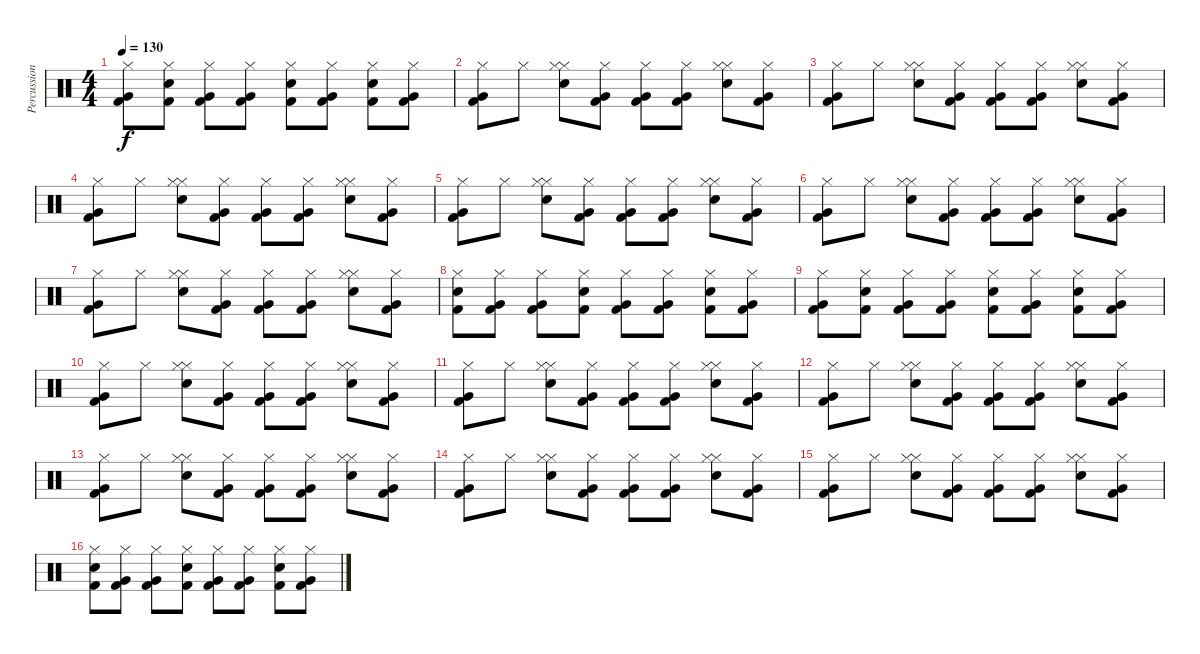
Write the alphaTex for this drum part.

\track ("Percussion" "Percussion") {instrument percussion}
\staff {score}
\articulation defaults
\ts (4 4)
\tempo 130
\clef neutral
\ks c
("Hi-Hat (closed)" "Very Low Tom (hit)" "Kick (hit) 2").8{dy f} ("Hi-Hat (closed)" "Snare (hit) 2" "Kick (hit) 2").8 ("Hi-Hat (closed)" "Very Low Tom (hit)" "Kick (hit) 2").8 ("Hi-Hat (closed)" "Very Low Tom (hit)" "Kick (hit) 2").8 ("Hi-Hat (closed)" "Snare (hit) 2" "Kick (hit) 2").8 ("Hi-Hat (closed)" "Very Low Tom (hit)" "Kick (hit) 2").8 ("Hi-Hat (closed)" "Snare (hit) 2" "Kick (hit) 2").8 ("Hi-Hat (closed)" "Very Low Tom (hit)" "Kick (hit) 2").8 |
("Hi-Hat (closed)" "Very Low Tom (hit)" "Kick (hit) 2").8 "Hi-Hat (closed)".8 ("Hi-Hat (closed)" "Hi-Hat (closed)" "Snare (hit) 2").8 ("Hi-Hat (closed)" "Very Low Tom (hit)" "Kick (hit) 2").8 ("Hi-Hat (closed)" "Very Low Tom (hit)" "Kick (hit) 2").8 ("Hi-Hat (closed)" "Very Low Tom (hit)" "Kick (hit) 2").8 ("Hi-Hat (closed)" "Hi-Hat (closed)" "Snare (hit) 2").8 ("Hi-Hat (closed)" "Very Low Tom (hit)" "Kick (hit) 2").8 |
("Hi-Hat (closed)" "Very Low Tom (hit)" "Kick (hit) 2").8 "Hi-Hat (closed)".8 ("Hi-Hat (closed)" "Hi-Hat (closed)" "Snare (hit) 2").8 ("Hi-Hat (closed)" "Very Low Tom (hit)" "Kick (hit) 2").8 ("Hi-Hat (closed)" "Very Low Tom (hit)" "Kick (hit) 2").8 ("Hi-Hat (closed)" "Very Low Tom (hit)" "Kick (hit) 2").8 ("Hi-Hat (closed)" "Hi-Hat (closed)" "Snare (hit) 2").8 ("Hi-Hat (closed)" "Very Low Tom (hit)" "Kick (hit) 2").8 |
("Hi-Hat (closed)" "Very Low Tom (hit)" "Kick (hit) 2").8 "Hi-Hat (closed)".8 ("Hi-Hat (closed)" "Hi-Hat (closed)" "Snare (hit) 2").8 ("Hi-Hat (closed)" "Very Low Tom (hit)" "Kick (hit) 2").8 ("Hi-Hat (closed)" "Very Low Tom (hit)" "Kick (hit) 2").8 ("Hi-Hat (closed)" "Very Low Tom (hit)" "Kick (hit) 2").8 ("Hi-Hat (closed)" "Hi-Hat (closed)" "Snare (hit) 2").8 ("Hi-Hat (closed)" "Very Low Tom (hit)" "Kick (hit) 2").8 |
("Hi-Hat (closed)" "Very Low Tom (hit)" "Kick (hit) 2").8 "Hi-Hat (closed)".8 ("Hi-Hat (closed)" "Hi-Hat (closed)" "Snare (hit) 2").8 ("Hi-Hat (closed)" "Very Low Tom (hit)" "Kick (hit) 2").8 ("Hi-Hat (closed)" "Very Low Tom (hit)" "Kick (hit) 2").8 ("Hi-Hat (closed)" "Very Low Tom (hit)" "Kick (hit) 2").8 ("Hi-Hat (closed)" "Hi-Hat (closed)" "Snare (hit) 2").8 ("Hi-Hat (closed)" "Very Low Tom (hit)" "Kick (hit) 2").8 |
("Hi-Hat (closed)" "Very Low Tom (hit)" "Kick (hit) 2").8 "Hi-Hat (closed)".8 ("Hi-Hat (closed)" "Hi-Hat (closed)" "Snare (hit) 2").8 ("Hi-Hat (closed)" "Very Low Tom (hit)" "Kick (hit) 2").8 ("Hi-Hat (closed)" "Very Low Tom (hit)" "Kick (hit) 2").8 ("Hi-Hat (closed)" "Very Low Tom (hit)" "Kick (hit) 2").8 ("Hi-Hat (closed)" "Hi-Hat (closed)" "Snare (hit) 2").8 ("Hi-Hat (closed)" "Very Low Tom (hit)" "Kick (hit) 2").8 |
("Hi-Hat (closed)" "Very Low Tom (hit)" "Kick (hit) 2").8 "Hi-Hat (closed)".8 ("Hi-Hat (closed)" "Hi-Hat (closed)" "Snare (hit) 2").8 ("Hi-Hat (closed)" "Very Low Tom (hit)" "Kick (hit) 2").8 ("Hi-Hat (closed)" "Very Low Tom (hit)" "Kick (hit) 2").8 ("Hi-Hat (closed)" "Very Low Tom (hit)" "Kick (hit) 2").8 ("Hi-Hat (closed)" "Hi-Hat (closed)" "Snare (hit) 2").8 ("Hi-Hat (closed)" "Very Low Tom (hit)" "Kick (hit) 2").8 |
("Hi-Hat (closed)" "Snare (hit) 2" "Kick (hit) 2").8 ("Hi-Hat (closed)" "Very Low Tom (hit)" "Kick (hit) 2").8 ("Hi-Hat (closed)" "Very Low Tom (hit)" "Kick (hit) 2").8 ("Hi-Hat (closed)" "Snare (hit) 2" "Kick (hit) 2").8 ("Hi-Hat (closed)" "Very Low Tom (hit)" "Kick (hit) 2").8 ("Hi-Hat (closed)" "Very Low Tom (hit)" "Kick (hit) 2").8 ("Hi-Hat (closed)" "Snare (hit) 2" "Kick (hit) 2").8 ("Hi-Hat (closed)" "Very Low Tom (hit)" "Kick (hit) 2").8 |
("Hi-Hat (closed)" "Very Low Tom (hit)" "Kick (hit) 2").8 ("Hi-Hat (closed)" "Snare (hit) 2" "Kick (hit) 2").8 ("Hi-Hat (closed)" "Very Low Tom (hit)" "Kick (hit) 2").8 ("Hi-Hat (closed)" "Very Low Tom (hit)" "Kick (hit) 2").8 ("Hi-Hat (closed)" "Snare (hit) 2" "Kick (hit) 2").8 ("Hi-Hat (closed)" "Very Low Tom (hit)" "Kick (hit) 2").8 ("Hi-Hat (closed)" "Snare (hit) 2" "Kick (hit) 2").8 ("Hi-Hat (closed)" "Very Low Tom (hit)" "Kick (hit) 2").8 |
("Hi-Hat (closed)" "Very Low Tom (hit)" "Kick (hit) 2").8 "Hi-Hat (closed)".8 ("Hi-Hat (closed)" "Hi-Hat (closed)" "Snare (hit) 2").8 ("Hi-Hat (closed)" "Very Low Tom (hit)" "Kick (hit) 2").8 ("Hi-Hat (closed)" "Very Low Tom (hit)" "Kick (hit) 2").8 ("Hi-Hat (closed)" "Very Low Tom (hit)" "Kick (hit) 2").8 ("Hi-Hat (closed)" "Hi-Hat (closed)" "Snare (hit) 2").8 ("Hi-Hat (closed)" "Very Low Tom (hit)" "Kick (hit) 2").8 |
("Hi-Hat (closed)" "Very Low Tom (hit)" "Kick (hit) 2").8 "Hi-Hat (closed)".8 ("Hi-Hat (closed)" "Hi-Hat (closed)" "Snare (hit) 2").8 ("Hi-Hat (closed)" "Very Low Tom (hit)" "Kick (hit) 2").8 ("Hi-Hat (closed)" "Very Low Tom (hit)" "Kick (hit) 2").8 ("Hi-Hat (closed)" "Very Low Tom (hit)" "Kick (hit) 2").8 ("Hi-Hat (closed)" "Hi-Hat (closed)" "Snare (hit) 2").8 ("Hi-Hat (closed)" "Very Low Tom (hit)" "Kick (hit) 2").8 |
("Hi-Hat (closed)" "Very Low Tom (hit)" "Kick (hit) 2").8 "Hi-Hat (closed)".8 ("Hi-Hat (closed)" "Hi-Hat (closed)" "Snare (hit) 2").8 ("Hi-Hat (closed)" "Very Low Tom (hit)" "Kick (hit) 2").8 ("Hi-Hat (closed)" "Very Low Tom (hit)" "Kick (hit) 2").8 ("Hi-Hat (closed)" "Very Low Tom (hit)" "Kick (hit) 2").8 ("Hi-Hat (closed)" "Hi-Hat (closed)" "Snare (hit) 2").8 ("Hi-Hat (closed)" "Very Low Tom (hit)" "Kick (hit) 2").8 |
("Hi-Hat (closed)" "Very Low Tom (hit)" "Kick (hit) 2").8 "Hi-Hat (closed)".8 ("Hi-Hat (closed)" "Hi-Hat (closed)" "Snare (hit) 2").8 ("Hi-Hat (closed)" "Very Low Tom (hit)" "Kick (hit) 2").8 ("Hi-Hat (closed)" "Very Low Tom (hit)" "Kick (hit) 2").8 ("Hi-Hat (closed)" "Very Low Tom (hit)" "Kick (hit) 2").8 ("Hi-Hat (closed)" "Hi-Hat (closed)" "Snare (hit) 2").8 ("Hi-Hat (closed)" "Very Low Tom (hit)" "Kick (hit) 2").8 |
("Hi-Hat (closed)" "Very Low Tom (hit)" "Kick (hit) 2").8 "Hi-Hat (closed)".8 ("Hi-Hat (closed)" "Hi-Hat (closed)" "Snare (hit) 2").8 ("Hi-Hat (closed)" "Very Low Tom (hit)" "Kick (hit) 2").8 ("Hi-Hat (closed)" "Very Low Tom (hit)" "Kick (hit) 2").8 ("Hi-Hat (closed)" "Very Low Tom (hit)" "Kick (hit) 2").8 ("Hi-Hat (closed)" "Hi-Hat (closed)" "Snare (hit) 2").8 ("Hi-Hat (closed)" "Very Low Tom (hit)" "Kick (hit) 2").8 |
("Hi-Hat (closed)" "Very Low Tom (hit)" "Kick (hit) 2").8 "Hi-Hat (closed)".8 ("Hi-Hat (closed)" "Hi-Hat (closed)" "Snare (hit) 2").8 ("Hi-Hat (closed)" "Very Low Tom (hit)" "Kick (hit) 2").8 ("Hi-Hat (closed)" "Very Low Tom (hit)" "Kick (hit) 2").8 ("Hi-Hat (closed)" "Very Low Tom (hit)" "Kick (hit) 2").8 ("Hi-Hat (closed)" "Hi-Hat (closed)" "Snare (hit) 2").8 ("Hi-Hat (closed)" "Very Low Tom (hit)" "Kick (hit) 2").8 |
("Hi-Hat (closed)" "Snare (hit) 2" "Kick (hit) 2").8 ("Hi-Hat (closed)" "Very Low Tom (hit)" "Kick (hit) 2").8 ("Hi-Hat (closed)" "Very Low Tom (hit)" "Kick (hit) 2").8 ("Hi-Hat (closed)" "Snare (hit) 2" "Kick (hit) 2").8 ("Hi-Hat (closed)" "Very Low Tom (hit)" "Kick (hit) 2").8 ("Hi-Hat (closed)" "Very Low Tom (hit)" "Kick (hit) 2").8 ("Hi-Hat (closed)" "Snare (hit) 2" "Kick (hit) 2").8 ("Hi-Hat (closed)" "Very Low Tom (hit)" "Kick (hit) 2").8
